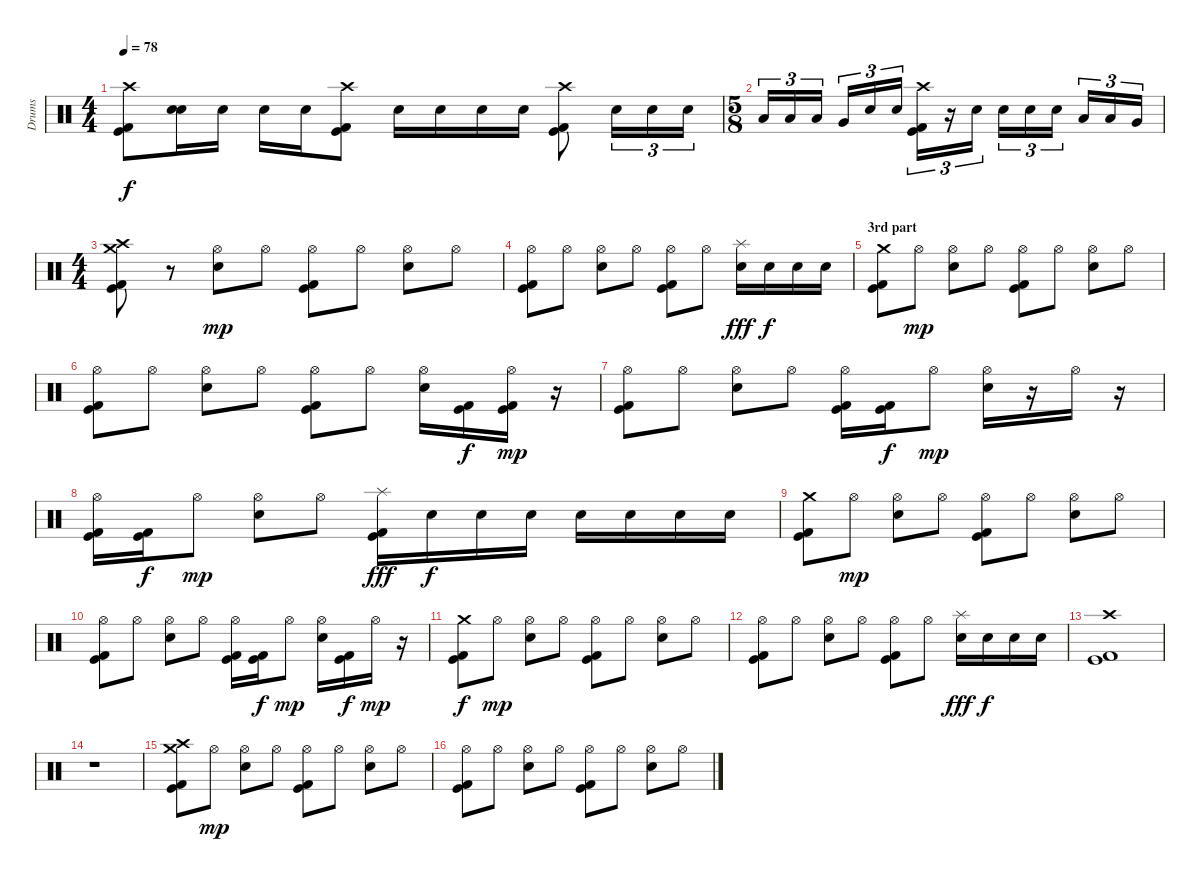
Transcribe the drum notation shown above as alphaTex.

\track ("Drums" "Drums") {instrument percussion}
\staff {score}
\articulation defaults
\ts (4 4)
\tempo 78
\clef neutral
\ks c
("Crash high (hit)" "Kick (hit)" "Kick (hit) 2").8{dy f} ("Electric Snare (hit)" "Electric Snare (hit)").16{bd 60} "Electric Snare (hit)".16 "Electric Snare (hit)".16 "Electric Snare (hit)".16 ("Crash high (hit)" "Kick (hit)" "Kick (hit) 2").8 "Electric Snare (hit)".16 "Electric Snare (hit)".16 "Electric Snare (hit)".16 "Electric Snare (hit)".16 ("Crash high (hit)" "Kick (hit)" "Kick (hit) 2").8 "Electric Snare (hit)".16{tu (3 2)} "Electric Snare (hit)".16{tu (3 2)} "Electric Snare (hit)".16{tu (3 2)} |
\ts (5 8)
"Low Tom (hit)".16{tu (3 2)} "Low Tom (hit)".16{tu (3 2)} "Low Tom (hit)".16{tu (3 2)} "Very Low Tom (hit)".16{tu (3 2)} "Electric Snare (hit)".16{tu (3 2)} "Electric Snare (hit)".16{tu (3 2)} ("Crash high (hit)" "Kick (hit)" "Kick (hit) 2").16{tu (3 2)} r.16{tu (3 2)} "Electric Snare (hit)".16{tu (3 2)} "Electric Snare (hit)".16{tu (3 2)} "Electric Snare (hit)".16{tu (3 2)} "Electric Snare (hit)".16{tu (3 2)} "Low Tom (hit)".16{tu (3 2)} "Low Tom (hit)".16{tu (3 2)} "Very Low Tom (hit)".16{tu (3 2)} |
\ts (4 4)
("Crash medium (hit)" "Crash high (hit)" "Kick (hit)" "Kick (hit) 2").8 r.8 ("Hi-Hat (open)" "Electric Snare (hit)").8{dy mp} "Hi-Hat (open)".8 ("Hi-Hat (open)" "Kick (hit)" "Kick (hit) 2").8 "Hi-Hat (open)".8 ("Hi-Hat (open)" "Electric Snare (hit)").8 "Hi-Hat (open)".8 |
("Hi-Hat (open)" "Kick (hit)" "Kick (hit) 2").8 "Hi-Hat (open)".8 ("Hi-Hat (open)" "Electric Snare (hit)").8 "Hi-Hat (open)".8 ("Hi-Hat (open)" "Kick (hit)" "Kick (hit) 2").8 "Hi-Hat (open)".8 ("Splash (hit)" "Electric Snare (hit)").16{dy fff} "Electric Snare (hit)".16{dy f} "Electric Snare (hit)".16 "Electric Snare (hit)".16 |
\section ("" "3rd part")
("Crash medium (hit)" "Kick (hit)" "Kick (hit) 2").8 "Hi-Hat (open)".8{dy mp} ("Hi-Hat (open)" "Electric Snare (hit)").8 "Hi-Hat (open)".8 ("Hi-Hat (open)" "Kick (hit)" "Kick (hit) 2").8 "Hi-Hat (open)".8 ("Hi-Hat (open)" "Electric Snare (hit)").8 "Hi-Hat (open)".8 |
("Hi-Hat (open)" "Kick (hit)" "Kick (hit) 2").8 "Hi-Hat (open)".8 ("Hi-Hat (open)" "Electric Snare (hit)").8 "Hi-Hat (open)".8 ("Hi-Hat (open)" "Kick (hit)" "Kick (hit) 2").8 "Hi-Hat (open)".8 ("Hi-Hat (open)" "Electric Snare (hit)").16 ("Kick (hit)" "Kick (hit) 2").16{dy f} ("Hi-Hat (open)" "Kick (hit)" "Kick (hit) 2").16{dy mp} r.16 |
("Hi-Hat (open)" "Kick (hit)" "Kick (hit) 2").8 "Hi-Hat (open)".8 ("Hi-Hat (open)" "Electric Snare (hit)").8 "Hi-Hat (open)".8 ("Hi-Hat (open)" "Kick (hit)" "Kick (hit) 2").16 ("Kick (hit)" "Kick (hit) 2").16{dy f} "Hi-Hat (open)".8{dy mp} ("Hi-Hat (open)" "Electric Snare (hit)").16 r.16 "Hi-Hat (open)".16 r.16 |
("Hi-Hat (open)" "Kick (hit)" "Kick (hit) 2").16 ("Kick (hit)" "Kick (hit) 2").16{dy f} "Hi-Hat (open)".8{dy mp} ("Hi-Hat (open)" "Electric Snare (hit)").8 "Hi-Hat (open)".8 ("Splash (hit)" "Kick (hit)" "Kick (hit) 2").16{dy fff} "Electric Snare (hit)".16{dy f} "Electric Snare (hit)".16 "Electric Snare (hit)".16 "Electric Snare (hit)".16 "Electric Snare (hit)".16 "Electric Snare (hit)".16 "Electric Snare (hit)".16 |
("Crash medium (hit)" "Kick (hit)" "Kick (hit) 2").8 "Hi-Hat (open)".8{dy mp} ("Hi-Hat (open)" "Electric Snare (hit)").8 "Hi-Hat (open)".8 ("Hi-Hat (open)" "Kick (hit)" "Kick (hit) 2").8 "Hi-Hat (open)".8 ("Hi-Hat (open)" "Electric Snare (hit)").8 "Hi-Hat (open)".8 |
("Hi-Hat (open)" "Kick (hit)" "Kick (hit) 2").8 "Hi-Hat (open)".8 ("Hi-Hat (open)" "Electric Snare (hit)").8 "Hi-Hat (open)".8 ("Hi-Hat (open)" "Kick (hit)" "Kick (hit) 2").16 ("Kick (hit)" "Kick (hit) 2").16{dy f} "Hi-Hat (open)".8{dy mp} ("Hi-Hat (open)" "Electric Snare (hit)").16 ("Kick (hit)" "Kick (hit) 2").16{dy f} "Hi-Hat (open)".16{dy mp} r.16 |
("Crash medium (hit)" "Kick (hit)" "Kick (hit) 2").8{dy f} "Hi-Hat (open)".8{dy mp} ("Hi-Hat (open)" "Electric Snare (hit)").8 "Hi-Hat (open)".8 ("Hi-Hat (open)" "Kick (hit)" "Kick (hit) 2").8 "Hi-Hat (open)".8 ("Hi-Hat (open)" "Electric Snare (hit)").8 "Hi-Hat (open)".8 |
("Hi-Hat (open)" "Kick (hit)" "Kick (hit) 2").8 "Hi-Hat (open)".8 ("Hi-Hat (open)" "Electric Snare (hit)").8 "Hi-Hat (open)".8 ("Hi-Hat (open)" "Kick (hit)" "Kick (hit) 2").8 "Hi-Hat (open)".8 ("Splash (hit)" "Electric Snare (hit)").16{dy fff} "Electric Snare (hit)".16{dy f} "Electric Snare (hit)".16 "Electric Snare (hit)".16 |
("Crash high (hit)" "Kick (hit)" "Kick (hit) 2").1 |
r.1 |
("Crash medium (hit)" "Crash high (hit)" "Kick (hit)" "Kick (hit) 2").8 "Hi-Hat (open)".8{dy mp} ("Hi-Hat (open)" "Electric Snare (hit)").8 "Hi-Hat (open)".8 ("Hi-Hat (open)" "Kick (hit)" "Kick (hit) 2").8 "Hi-Hat (open)".8 ("Hi-Hat (open)" "Electric Snare (hit)").8 "Hi-Hat (open)".8 |
("Hi-Hat (open)" "Kick (hit)" "Kick (hit) 2").8 "Hi-Hat (open)".8 ("Hi-Hat (open)" "Electric Snare (hit)").8 "Hi-Hat (open)".8 ("Hi-Hat (open)" "Kick (hit)" "Kick (hit) 2").8 "Hi-Hat (open)".8 ("Hi-Hat (open)" "Electric Snare (hit)").8 "Hi-Hat (open)".8
